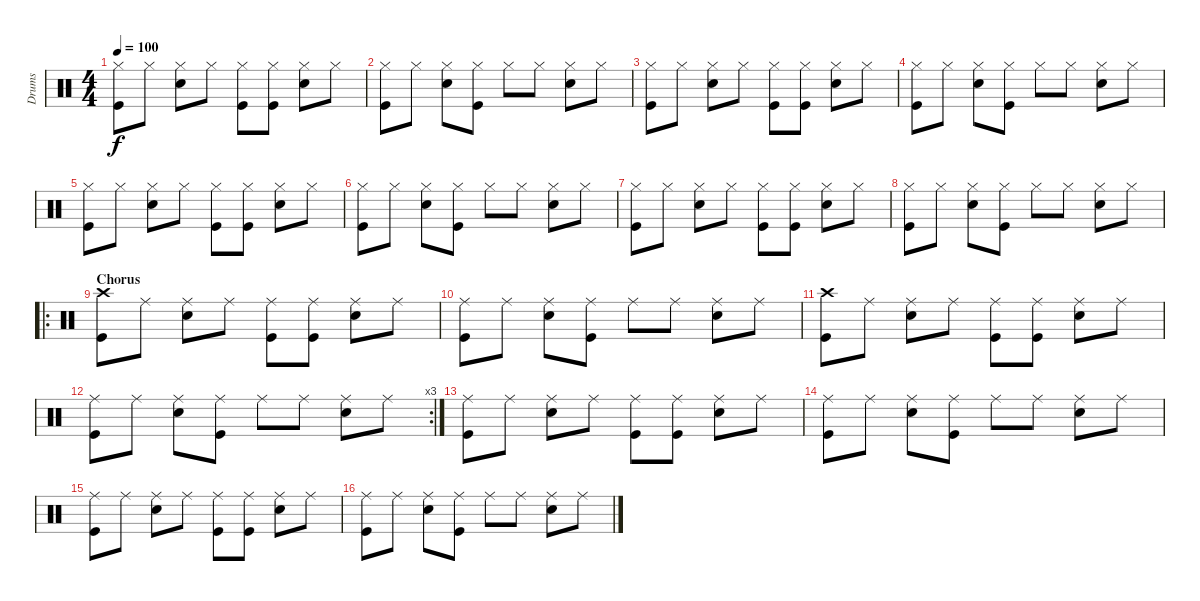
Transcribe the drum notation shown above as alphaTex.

\track ("Drums" "Drums") {instrument percussion}
\staff {score}
\articulation defaults
\ts (4 4)
\tempo 100
\clef neutral
\ks c
("Hi-Hat (closed)" "Kick (hit)").8{dy f} "Hi-Hat (closed)".8 ("Hi-Hat (closed)" "Snare (hit) 2").8 "Hi-Hat (closed)".8 ("Hi-Hat (closed)" "Kick (hit)").8 ("Hi-Hat (closed)" "Kick (hit)").8 ("Hi-Hat (closed)" "Snare (hit) 2").8 "Hi-Hat (closed)".8 |
("Hi-Hat (closed)" "Kick (hit)").8 "Hi-Hat (closed)".8 ("Hi-Hat (closed)" "Snare (hit) 2").8 ("Hi-Hat (closed)" "Kick (hit)").8 "Hi-Hat (closed)".8 "Hi-Hat (closed)".8 ("Hi-Hat (closed)" "Snare (hit) 2").8 "Hi-Hat (closed)".8 |
("Hi-Hat (closed)" "Kick (hit)").8 "Hi-Hat (closed)".8 ("Hi-Hat (closed)" "Snare (hit) 2").8 "Hi-Hat (closed)".8 ("Hi-Hat (closed)" "Kick (hit)").8 ("Hi-Hat (closed)" "Kick (hit)").8 ("Hi-Hat (closed)" "Snare (hit) 2").8 "Hi-Hat (closed)".8 |
("Hi-Hat (closed)" "Kick (hit)").8 "Hi-Hat (closed)".8 ("Hi-Hat (closed)" "Snare (hit) 2").8 ("Hi-Hat (closed)" "Kick (hit)").8 "Hi-Hat (closed)".8 "Hi-Hat (closed)".8 ("Hi-Hat (closed)" "Snare (hit) 2").8 "Hi-Hat (closed)".8 |
("Hi-Hat (closed)" "Kick (hit)").8 "Hi-Hat (closed)".8 ("Hi-Hat (closed)" "Snare (hit) 2").8 "Hi-Hat (closed)".8 ("Hi-Hat (closed)" "Kick (hit)").8 ("Hi-Hat (closed)" "Kick (hit)").8 ("Hi-Hat (closed)" "Snare (hit) 2").8 "Hi-Hat (closed)".8 |
("Hi-Hat (closed)" "Kick (hit)").8 "Hi-Hat (closed)".8 ("Hi-Hat (closed)" "Snare (hit) 2").8 ("Hi-Hat (closed)" "Kick (hit)").8 "Hi-Hat (closed)".8 "Hi-Hat (closed)".8 ("Hi-Hat (closed)" "Snare (hit) 2").8 "Hi-Hat (closed)".8 |
("Hi-Hat (closed)" "Kick (hit)").8 "Hi-Hat (closed)".8 ("Hi-Hat (closed)" "Snare (hit) 2").8 "Hi-Hat (closed)".8 ("Hi-Hat (closed)" "Kick (hit)").8 ("Hi-Hat (closed)" "Kick (hit)").8 ("Hi-Hat (closed)" "Snare (hit) 2").8 "Hi-Hat (closed)".8 |
("Hi-Hat (closed)" "Kick (hit)").8 "Hi-Hat (closed)".8 ("Hi-Hat (closed)" "Snare (hit) 2").8 ("Hi-Hat (closed)" "Kick (hit)").8 "Hi-Hat (closed)".8 "Hi-Hat (closed)".8 ("Hi-Hat (closed)" "Snare (hit) 2").8 "Hi-Hat (closed)".8 |
\ro
\section ("" "Chorus")
("Crash high (hit)" "Kick (hit)").8 "Ride (middle)".8 ("Ride (middle)" "Snare (hit) 2").8 "Ride (middle)".8 ("Ride (middle)" "Kick (hit)").8 ("Ride (middle)" "Kick (hit)").8 ("Ride (middle)" "Snare (hit) 2").8 "Ride (middle)".8 |
("Ride (middle)" "Kick (hit)").8 "Ride (middle)".8 ("Ride (middle)" "Snare (hit) 2").8 ("Ride (middle)" "Kick (hit)").8 "Ride (middle)".8 "Ride (middle)".8 ("Ride (middle)" "Snare (hit) 2").8 "Ride (middle)".8 |
("Crash high (hit)" "Kick (hit)").8 "Ride (middle)".8 ("Ride (middle)" "Snare (hit) 2").8 "Ride (middle)".8 ("Ride (middle)" "Kick (hit)").8 ("Ride (middle)" "Kick (hit)").8 ("Ride (middle)" "Snare (hit) 2").8 "Ride (middle)".8 |
\rc 3
("Ride (middle)" "Kick (hit)").8 "Ride (middle)".8 ("Ride (middle)" "Snare (hit) 2").8 ("Ride (middle)" "Kick (hit)").8 "Ride (middle)".8 "Ride (middle)".8 ("Ride (middle)" "Snare (hit) 2").8 "Ride (middle)".8 |
("Ride (middle)" "Kick (hit)").8 "Ride (middle)".8 ("Ride (middle)" "Snare (hit) 2").8 "Ride (middle)".8 ("Ride (middle)" "Kick (hit)").8 ("Ride (middle)" "Kick (hit)").8 ("Ride (middle)" "Snare (hit) 2").8 "Ride (middle)".8 |
("Ride (middle)" "Kick (hit)").8 "Ride (middle)".8 ("Ride (middle)" "Snare (hit) 2").8 ("Ride (middle)" "Kick (hit)").8 "Ride (middle)".8 "Ride (middle)".8 ("Ride (middle)" "Snare (hit) 2").8 "Ride (middle)".8 |
("Ride (middle)" "Kick (hit)").8 "Ride (middle)".8 ("Ride (middle)" "Snare (hit) 2").8 "Ride (middle)".8 ("Ride (middle)" "Kick (hit)").8 ("Ride (middle)" "Kick (hit)").8 ("Ride (middle)" "Snare (hit) 2").8 "Ride (middle)".8 |
("Ride (middle)" "Kick (hit)").8 "Ride (middle)".8 ("Ride (middle)" "Snare (hit) 2").8 ("Ride (middle)" "Kick (hit)").8 "Ride (middle)".8 "Ride (middle)".8 ("Ride (middle)" "Snare (hit) 2").8 "Ride (middle)".8
